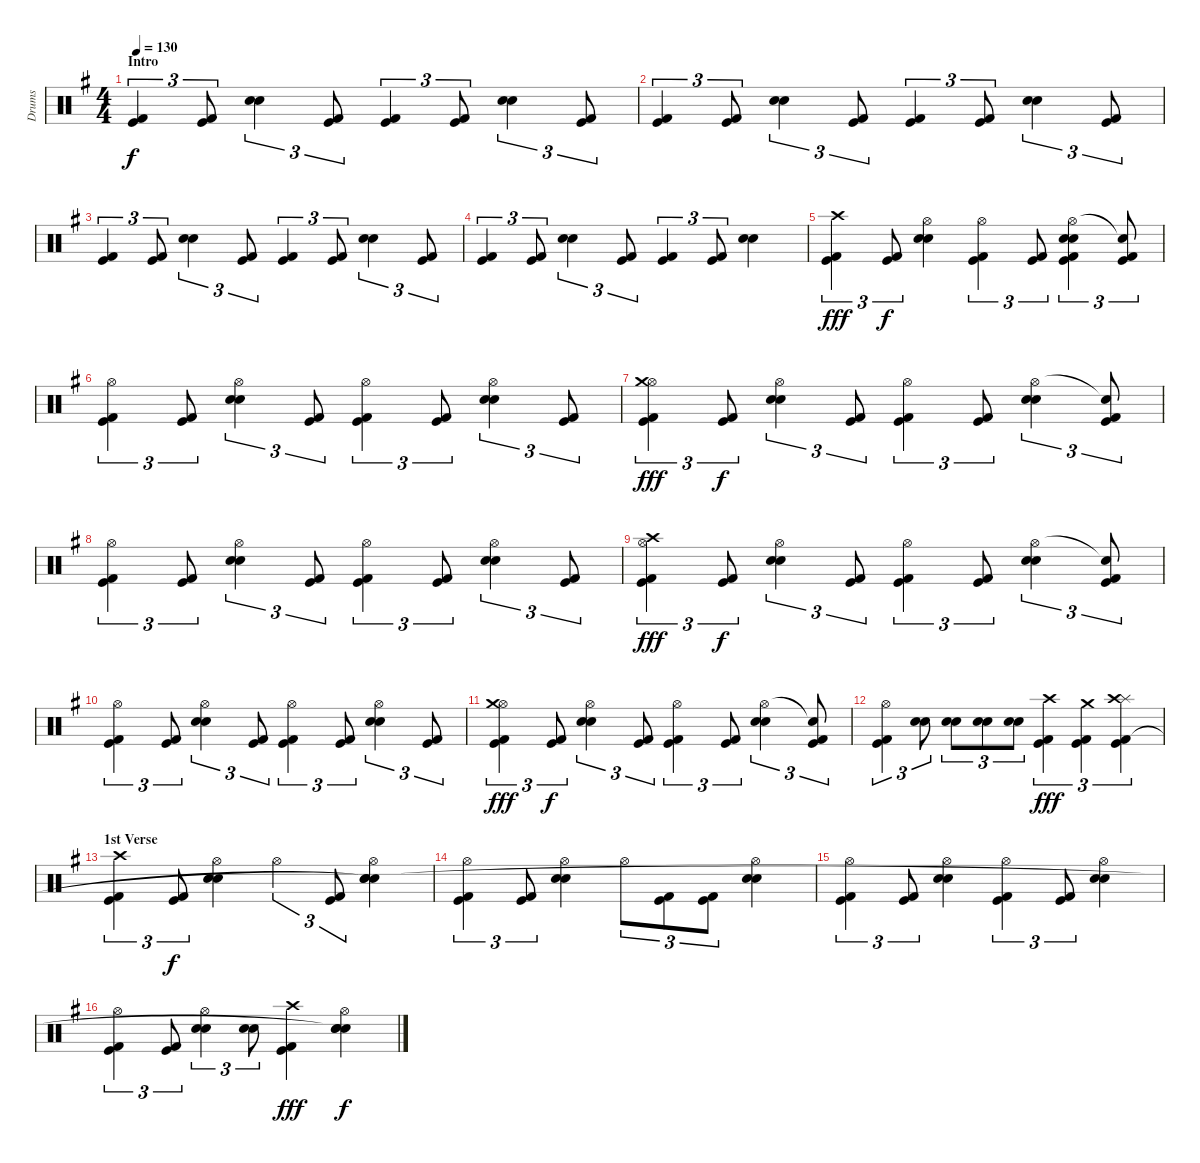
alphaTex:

\track ("Drums" "Drums") {instrument percussion}
\staff {score}
\articulation defaults
\ts (4 4)
\section ("" "Intro")
\tempo 130
\clef neutral
\ks g
("Kick (hit)" "Kick (hit) 2").4{tu (3 2) dy f} ("Kick (hit)" "Kick (hit) 2").8{tu (3 2)} ("Electric Snare (hit)" "Snare (hit) 2").4{tu (3 2)} ("Kick (hit)" "Kick (hit) 2").8{tu (3 2)} ("Kick (hit)" "Kick (hit) 2").4{tu (3 2)} ("Kick (hit)" "Kick (hit) 2").8{tu (3 2)} ("Electric Snare (hit)" "Snare (hit) 2").4{tu (3 2)} ("Kick (hit)" "Kick (hit) 2").8{tu (3 2)} |
("Kick (hit)" "Kick (hit) 2").4{tu (3 2)} ("Kick (hit)" "Kick (hit) 2").8{tu (3 2)} ("Electric Snare (hit)" "Snare (hit) 2").4{tu (3 2)} ("Kick (hit)" "Kick (hit) 2").8{tu (3 2)} ("Kick (hit)" "Kick (hit) 2").4{tu (3 2)} ("Kick (hit)" "Kick (hit) 2").8{tu (3 2)} ("Electric Snare (hit)" "Snare (hit) 2").4{tu (3 2)} ("Kick (hit)" "Kick (hit) 2").8{tu (3 2)} |
("Kick (hit)" "Kick (hit) 2").4{tu (3 2)} ("Kick (hit)" "Kick (hit) 2").8{tu (3 2)} ("Electric Snare (hit)" "Snare (hit) 2").4{tu (3 2)} ("Kick (hit)" "Kick (hit) 2").8{tu (3 2)} ("Kick (hit)" "Kick (hit) 2").4{tu (3 2)} ("Kick (hit)" "Kick (hit) 2").8{tu (3 2)} ("Electric Snare (hit)" "Snare (hit) 2").4{tu (3 2)} ("Kick (hit)" "Kick (hit) 2").8{tu (3 2)} |
("Kick (hit)" "Kick (hit) 2").4{tu (3 2)} ("Kick (hit)" "Kick (hit) 2").8{tu (3 2)} ("Electric Snare (hit)" "Snare (hit) 2").4{tu (3 2)} ("Kick (hit)" "Kick (hit) 2").8{tu (3 2)} ("Kick (hit)" "Kick (hit) 2").4{tu (3 2)} ("Kick (hit)" "Kick (hit) 2").8{tu (3 2)} ("Electric Snare (hit)" "Snare (hit) 2").4 |
("Crash high (hit)" "Kick (hit)" "Kick (hit) 2").4{tu (3 2) dy fff} ("Kick (hit)" "Kick (hit) 2").8{tu (3 2) dy f} ("Hi-Hat (open)" "Electric Snare (hit)" "Snare (hit) 2").4 ("Hi-Hat (open)" "Kick (hit)" "Kick (hit) 2").4{tu (3 2)} ("Kick (hit)" "Kick (hit) 2").8{tu (3 2)} ("Hi-Hat (open)" "Electric Snare (hit)" "Snare (hit) 2" "Kick (hit)" "Kick (hit) 2").4{tu (3 2)} ("Snare (hit)"{t} "Kick (hit)" "Kick (hit) 2").8{tu (3 2)} |
("Hi-Hat (open)" "Kick (hit)" "Kick (hit) 2").4{tu (3 2)} ("Kick (hit)" "Kick (hit) 2").8{tu (3 2)} ("Hi-Hat (open)" "Electric Snare (hit)" "Snare (hit) 2").4{tu (3 2)} ("Kick (hit)" "Kick (hit) 2").8{tu (3 2)} ("Hi-Hat (open)" "Kick (hit)" "Kick (hit) 2").4{tu (3 2)} ("Kick (hit)" "Kick (hit) 2").8{tu (3 2)} ("Hi-Hat (open)" "Electric Snare (hit)" "Snare (hit) 2").4{tu (3 2)} ("Kick (hit)" "Kick (hit) 2").8{tu (3 2)} |
("Hi-Hat (open)" "Crash medium (hit)" "Kick (hit)" "Kick (hit) 2").4{tu (3 2) dy fff} ("Kick (hit)" "Kick (hit) 2").8{tu (3 2) dy f} ("Hi-Hat (open)" "Electric Snare (hit)" "Snare (hit) 2").4{tu (3 2)} ("Kick (hit)" "Kick (hit) 2").8{tu (3 2)} ("Hi-Hat (open)" "Kick (hit)" "Kick (hit) 2").4{tu (3 2)} ("Kick (hit)" "Kick (hit) 2").8{tu (3 2)} ("Hi-Hat (open)" "Electric Snare (hit)" "Snare (hit) 2").4{tu (3 2)} ("Snare (hit)"{t} "Kick (hit)" "Kick (hit) 2").8{tu (3 2)} |
("Hi-Hat (open)" "Kick (hit)" "Kick (hit) 2").4{tu (3 2)} ("Kick (hit)" "Kick (hit) 2").8{tu (3 2)} ("Hi-Hat (open)" "Electric Snare (hit)" "Snare (hit) 2").4{tu (3 2)} ("Kick (hit)" "Kick (hit) 2").8{tu (3 2)} ("Hi-Hat (open)" "Kick (hit)" "Kick (hit) 2").4{tu (3 2)} ("Kick (hit)" "Kick (hit) 2").8{tu (3 2)} ("Hi-Hat (open)" "Electric Snare (hit)" "Snare (hit) 2").4{tu (3 2)} ("Kick (hit)" "Kick (hit) 2").8{tu (3 2)} |
("Hi-Hat (open)" "Crash high (hit)" "Kick (hit)" "Kick (hit) 2").4{tu (3 2) dy fff} ("Kick (hit)" "Kick (hit) 2").8{tu (3 2) dy f} ("Hi-Hat (open)" "Electric Snare (hit)" "Snare (hit) 2").4{tu (3 2)} ("Kick (hit)" "Kick (hit) 2").8{tu (3 2)} ("Hi-Hat (open)" "Kick (hit)" "Kick (hit) 2").4{tu (3 2)} ("Kick (hit)" "Kick (hit) 2").8{tu (3 2)} ("Hi-Hat (open)" "Electric Snare (hit)" "Snare (hit) 2").4{tu (3 2)} ("Snare (hit)"{t} "Kick (hit)" "Kick (hit) 2").8{tu (3 2)} |
("Hi-Hat (open)" "Kick (hit)" "Kick (hit) 2").4{tu (3 2)} ("Kick (hit)" "Kick (hit) 2").8{tu (3 2)} ("Hi-Hat (open)" "Electric Snare (hit)" "Snare (hit) 2").4{tu (3 2)} ("Kick (hit)" "Kick (hit) 2").8{tu (3 2)} ("Hi-Hat (open)" "Kick (hit)" "Kick (hit) 2").4{tu (3 2)} ("Kick (hit)" "Kick (hit) 2").8{tu (3 2)} ("Hi-Hat (open)" "Electric Snare (hit)" "Snare (hit) 2").4{tu (3 2)} ("Kick (hit)" "Kick (hit) 2").8{tu (3 2)} |
("Hi-Hat (open)" "Crash medium (hit)" "Kick (hit)" "Kick (hit) 2").4{tu (3 2) dy fff} ("Kick (hit)" "Kick (hit) 2").8{tu (3 2) dy f} ("Hi-Hat (open)" "Electric Snare (hit)" "Snare (hit) 2").4{tu (3 2)} ("Kick (hit)" "Kick (hit) 2").8{tu (3 2)} ("Hi-Hat (open)" "Kick (hit)" "Kick (hit) 2").4{tu (3 2)} ("Kick (hit)" "Kick (hit) 2").8{tu (3 2)} ("Hi-Hat (open)" "Electric Snare (hit)" "Snare (hit) 2").4{tu (3 2)} ("Snare (hit)"{t} "Kick (hit)" "Kick (hit) 2").8{tu (3 2)} |
("Hi-Hat (open)" "Kick (hit)" "Kick (hit) 2").4{tu (3 2)} ("Electric Snare (hit)" "Snare (hit) 2").8{tu (3 2)} ("Electric Snare (hit)" "Snare (hit) 2").8{tu (3 2)} ("Electric Snare (hit)" "Snare (hit) 2").8{tu (3 2)} ("Electric Snare (hit)" "Snare (hit) 2").8{tu (3 2)} ("Crash high (hit)" "Kick (hit)" "Kick (hit) 2").4{tu (3 2) dy fff} ("Crash medium (hit)" "Kick (hit)" "Kick (hit) 2").4{tu (3 2)} ("Splash (hit)" "Crash high (hit)" "Kick (hit)" "Kick (hit) 2").4{tu (3 2)} |
\section ("" "1st Verse")
("Crash high (hit)" "Kick (hit)" "Kick (hit) 2").4{tu (3 2)} ("Kick (hit)" "Kick (hit) 2").8{tu (3 2) dy f} ("Hi-Hat (open)" "Electric Snare (hit)" "Snare (hit) 2").4 "Hi-Hat (open)".4{tu (3 2)} ("Kick (hit)" "Kick (hit) 2").8{tu (3 2)} ("Hi-Hat (open)" "Electric Snare (hit)" "Snare (hit) 2" "Snare (hit)"{t}).4 |
("Hi-Hat (open)" "Kick (hit)" "Kick (hit) 2").4{tu (3 2)} ("Kick (hit)" "Kick (hit) 2").8{tu (3 2)} ("Hi-Hat (open)" "Electric Snare (hit)" "Snare (hit) 2").4 "Hi-Hat (open)".8{tu (3 2)} ("Kick (hit)" "Kick (hit) 2").8{tu (3 2)} ("Kick (hit)" "Kick (hit) 2").8{tu (3 2)} ("Hi-Hat (open)" "Electric Snare (hit)" "Snare (hit) 2").4 |
("Hi-Hat (open)" "Kick (hit)" "Kick (hit) 2").4{tu (3 2)} ("Kick (hit)" "Kick (hit) 2").8{tu (3 2)} ("Hi-Hat (open)" "Electric Snare (hit)" "Snare (hit) 2").4 ("Hi-Hat (open)" "Kick (hit)" "Kick (hit) 2").4{tu (3 2)} ("Kick (hit)" "Kick (hit) 2").8{tu (3 2)} ("Hi-Hat (open)" "Electric Snare (hit)" "Snare (hit) 2").4 |
("Hi-Hat (open)" "Kick (hit)" "Kick (hit) 2").4{tu (3 2)} ("Kick (hit)" "Kick (hit) 2").8{tu (3 2)} ("Hi-Hat (open)" "Electric Snare (hit)" "Snare (hit) 2").4{tu (3 2)} ("Electric Snare (hit)" "Snare (hit) 2").8{tu (3 2)} ("Crash high (hit)" "Kick (hit)" "Kick (hit) 2").4{dy fff} ("Hi-Hat (open)" "Electric Snare (hit)" "Snare (hit) 2" "Snare (hit)"{t}).4{dy f}
